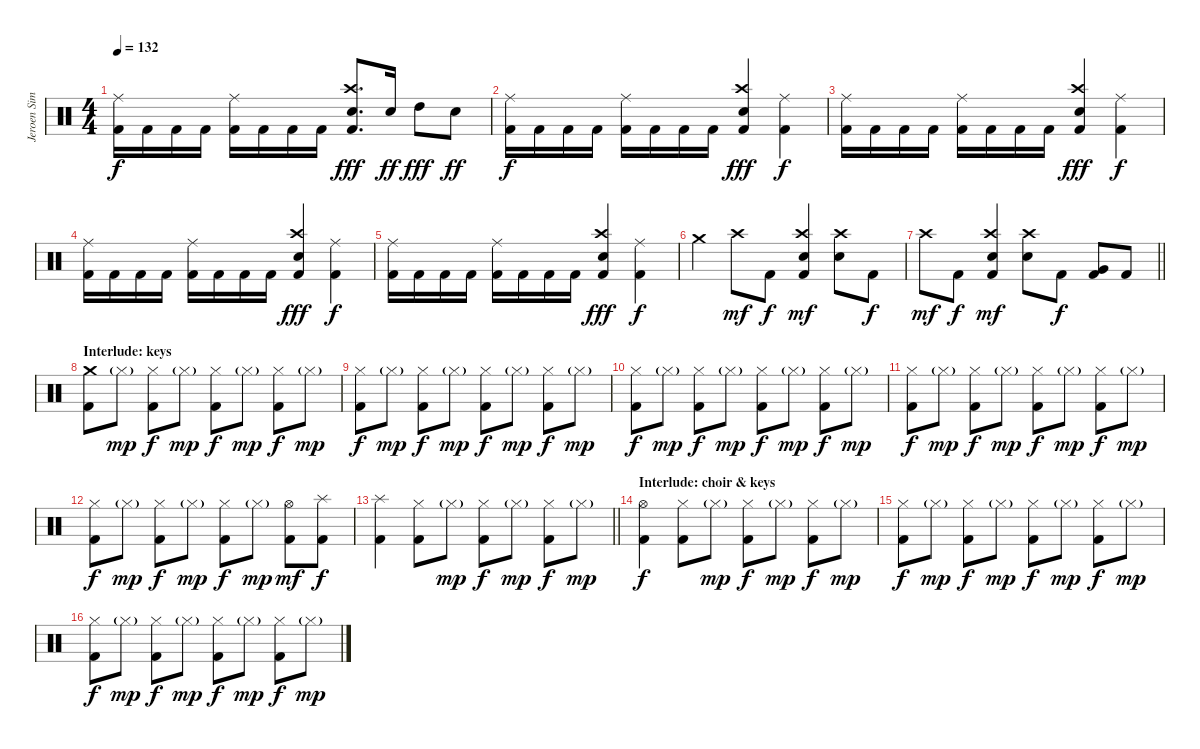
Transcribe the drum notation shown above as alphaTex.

\track ("Jeroen Simons" "Jeroen Sim") {instrument percussion}
\staff {score}
\articulation defaults
\ts (4 4)
\tempo 132
\clef neutral
\ks c
("Ride (middle)" "Kick (hit) 2").16{dy f} "Kick (hit) 2".16 "Kick (hit) 2".16 "Kick (hit) 2".16 ("Ride (middle)" "Kick (hit) 2").16 "Kick (hit) 2".16 "Kick (hit) 2".16 "Kick (hit) 2".16 ("Crash high (hit)" "Electric Snare (hit)" "Kick (hit) 2").8{d dy fff} "Electric Snare (hit)".16{dy ff} "High Tom (hit)".8{dy fff} "Electric Snare (hit)".8{dy ff} |
("Ride (middle)" "Kick (hit) 2").16{dy f} "Kick (hit) 2".16 "Kick (hit) 2".16 "Kick (hit) 2".16 ("Ride (middle)" "Kick (hit) 2").16 "Kick (hit) 2".16 "Kick (hit) 2".16 "Kick (hit) 2".16 ("Crash high (hit)" "Electric Snare (hit)" "Kick (hit) 2").4{dy fff} ("Ride (middle)" "Kick (hit) 2").4{dy f} |
("Ride (middle)" "Kick (hit) 2").16 "Kick (hit) 2".16 "Kick (hit) 2".16 "Kick (hit) 2".16 ("Ride (middle)" "Kick (hit) 2").16 "Kick (hit) 2".16 "Kick (hit) 2".16 "Kick (hit) 2".16 ("Crash high (hit)" "Electric Snare (hit)" "Kick (hit) 2").4{dy fff} ("Ride (middle)" "Kick (hit) 2").4{dy f} |
("Ride (middle)" "Kick (hit) 2").16 "Kick (hit) 2".16 "Kick (hit) 2".16 "Kick (hit) 2".16 ("Ride (middle)" "Kick (hit) 2").16 "Kick (hit) 2".16 "Kick (hit) 2".16 "Kick (hit) 2".16 ("Crash high (hit)" "Electric Snare (hit)" "Kick (hit) 2").4{dy fff} ("Ride (middle)" "Kick (hit) 2").4{dy f} |
("Ride (middle)" "Kick (hit) 2").16 "Kick (hit) 2".16 "Kick (hit) 2".16 "Kick (hit) 2".16 ("Ride (middle)" "Kick (hit) 2").16 "Kick (hit) 2".16 "Kick (hit) 2".16 "Kick (hit) 2".16 ("Crash high (hit)" "Electric Snare (hit)" "Kick (hit) 2").4{dy fff} ("Ride (middle)" "Kick (hit) 2").4{dy f} |
"Crash medium (hit)".4 "Crash high (hit)".8{dy mf} "Kick (hit) 2".8{dy f} ("Crash high (hit)" "Electric Snare (hit)" "Kick (hit) 2").4{dy mf} ("Crash high (hit)" "Electric Snare (hit)").8 "Kick (hit) 2".8{dy f} |
\barLineRight lightlight "Crash high (hit)".8{dy mf} "Kick (hit) 2".8{dy f}
("Crash high (hit)" "Electric Snare (hit)" "Kick (hit) 2").4{dy mf} ("Crash high (hit)" "Electric Snare (hit)").8 "Kick (hit) 2".8{dy f} ("Very Low Tom (hit)" "Kick (hit) 2").8 "Kick (hit) 2".8 |
\section ("" "Interlude: keys")
("Crash medium (hit)" "Kick (hit) 2").8 "Hi-Hat (closed)"{g}.8{dy mp} ("Hi-Hat (closed)" "Kick (hit) 2").8{dy f} "Hi-Hat (closed)"{g}.8{dy mp} ("Hi-Hat (closed)" "Kick (hit) 2").8{dy f} "Hi-Hat (closed)"{g}.8{dy mp} ("Hi-Hat (closed)" "Kick (hit) 2").8{dy f} "Hi-Hat (closed)"{g}.8{dy mp} |
("Hi-Hat (closed)" "Kick (hit) 2").8{dy f} "Hi-Hat (closed)"{g}.8{dy mp} ("Hi-Hat (closed)" "Kick (hit) 2").8{dy f} "Hi-Hat (closed)"{g}.8{dy mp} ("Hi-Hat (closed)" "Kick (hit) 2").8{dy f} "Hi-Hat (closed)"{g}.8{dy mp} ("Hi-Hat (closed)" "Kick (hit) 2").8{dy f} "Hi-Hat (closed)"{g}.8{dy mp} |
("Hi-Hat (closed)" "Kick (hit) 2").8{dy f} "Hi-Hat (closed)"{g}.8{dy mp} ("Hi-Hat (closed)" "Kick (hit) 2").8{dy f} "Hi-Hat (closed)"{g}.8{dy mp} ("Hi-Hat (closed)" "Kick (hit) 2").8{dy f} "Hi-Hat (closed)"{g}.8{dy mp} ("Hi-Hat (closed)" "Kick (hit) 2").8{dy f} "Hi-Hat (closed)"{g}.8{dy mp} |
("Hi-Hat (closed)" "Kick (hit) 2").8{dy f} "Hi-Hat (closed)"{g}.8{dy mp} ("Hi-Hat (closed)" "Kick (hit) 2").8{dy f} "Hi-Hat (closed)"{g}.8{dy mp} ("Hi-Hat (closed)" "Kick (hit) 2").8{dy f} "Hi-Hat (closed)"{g}.8{dy mp} ("Hi-Hat (closed)" "Kick (hit) 2").8{dy f} "Hi-Hat (closed)"{g}.8{dy mp} |
("Hi-Hat (closed)" "Kick (hit) 2").8{dy f} "Hi-Hat (closed)"{g}.8{dy mp} ("Hi-Hat (closed)" "Kick (hit) 2").8{dy f} "Hi-Hat (closed)"{g}.8{dy mp} ("Hi-Hat (closed)" "Kick (hit) 2").8{dy f} "Hi-Hat (closed)"{g}.8{dy mp} ("Hi-Hat (open)" "Kick (hit) 2").8{dy mf} ("Splash (hit)" "Kick (hit) 2").8{dy f} |
\barLineRight lightlight
("Splash (hit)" "Kick (hit) 2").4 ("Hi-Hat (closed)" "Kick (hit) 2").8 "Hi-Hat (closed)"{g}.8{dy mp} ("Hi-Hat (closed)" "Kick (hit) 2").8{dy f} "Hi-Hat (closed)"{g}.8{dy mp} ("Hi-Hat (closed)" "Kick (hit) 2").8{dy f} "Hi-Hat (closed)"{g}.8{dy mp} |
\section ("" "Interlude: choir & keys")
("Hi-Hat (open)" "Kick (hit) 2").4{dy f} ("Hi-Hat (closed)" "Kick (hit) 2").8 "Hi-Hat (closed)"{g}.8{dy mp} ("Hi-Hat (closed)" "Kick (hit) 2").8{dy f} "Hi-Hat (closed)"{g}.8{dy mp} ("Hi-Hat (closed)" "Kick (hit) 2").8{dy f} "Hi-Hat (closed)"{g}.8{dy mp} |
("Hi-Hat (closed)" "Kick (hit) 2").8{dy f} "Hi-Hat (closed)"{g}.8{dy mp} ("Hi-Hat (closed)" "Kick (hit) 2").8{dy f} "Hi-Hat (closed)"{g}.8{dy mp} ("Hi-Hat (closed)" "Kick (hit) 2").8{dy f} "Hi-Hat (closed)"{g}.8{dy mp} ("Hi-Hat (closed)" "Kick (hit) 2").8{dy f} "Hi-Hat (closed)"{g}.8{dy mp} |
("Hi-Hat (closed)" "Kick (hit) 2").8{dy f} "Hi-Hat (closed)"{g}.8{dy mp} ("Hi-Hat (closed)" "Kick (hit) 2").8{dy f} "Hi-Hat (closed)"{g}.8{dy mp} ("Hi-Hat (closed)" "Kick (hit) 2").8{dy f} "Hi-Hat (closed)"{g}.8{dy mp} ("Hi-Hat (closed)" "Kick (hit) 2").8{dy f} "Hi-Hat (closed)"{g}.8{dy mp}
